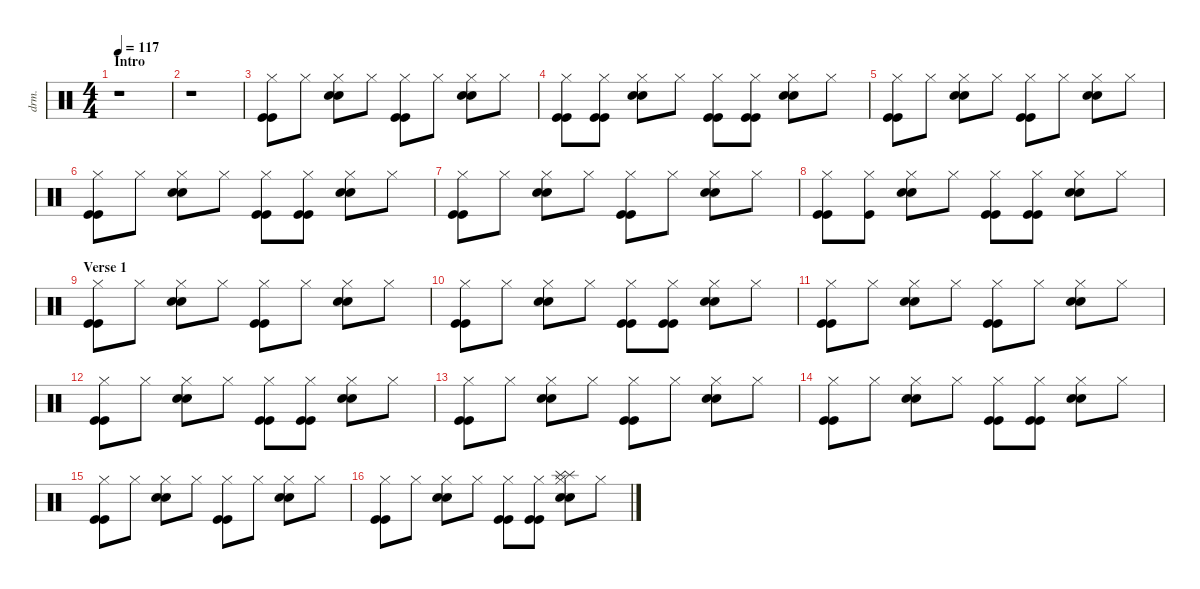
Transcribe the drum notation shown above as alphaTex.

\defaultSystemsLayout 4
\hideDynamics
\bracketExtendMode nobrackets
\otherSystemsTrackNameOrientation horizontal
\track ("Drums" "drm.") {instrument percussion}
\staff {score}
\articulation defaults
\ts (4 4)
\section ("" "Intro")
\tempo 117
\clef neutral
\ks c
r.1{dy f beam Down} |
r.1{beam Down} |
("Kick (hit)" "Kick (hit)" "Hi-Hat (closed)").8{beam Down} "Hi-Hat (closed)".8{beam Down} ("Snare (hit) 2" "Snare (hit) 2" "Hi-Hat (closed)").8{dy mf beam Down} "Hi-Hat (closed)".8{dy f beam Down} ("Kick (hit)" "Kick (hit)" "Hi-Hat (closed)").8{beam Down} "Hi-Hat (closed)".8{beam Down} ("Snare (hit) 2" "Snare (hit) 2" "Hi-Hat (closed)").8{dy mf beam Down} "Hi-Hat (closed)".8{dy f beam Down} |
("Kick (hit)" "Kick (hit)" "Hi-Hat (closed)").8{beam Down} ("Kick (hit)" "Kick (hit)" "Hi-Hat (closed)").8{beam Down} ("Snare (hit) 2" "Snare (hit) 2" "Hi-Hat (closed)").8{dy mf beam Down} "Hi-Hat (closed)".8{dy f beam Down} ("Kick (hit)" "Kick (hit)" "Hi-Hat (closed)").8{beam Down} ("Kick (hit)" "Kick (hit)" "Hi-Hat (closed)").8{beam Down} ("Snare (hit) 2" "Snare (hit) 2" "Hi-Hat (closed)").8{dy mf beam Down} "Hi-Hat (closed)".8{dy f beam Down} |
("Kick (hit)" "Kick (hit)" "Hi-Hat (closed)").8{beam Down} "Hi-Hat (closed)".8{beam Down} ("Snare (hit) 2" "Snare (hit) 2" "Hi-Hat (closed)").8{dy mf beam Down} "Hi-Hat (closed)".8{dy f beam Down} ("Kick (hit)" "Kick (hit)" "Hi-Hat (closed)").8{beam Down} "Hi-Hat (closed)".8{beam Down} ("Snare (hit) 2" "Snare (hit) 2" "Hi-Hat (closed)").8{dy mf beam Down} "Hi-Hat (closed)".8{dy f beam Down} |
("Kick (hit)" "Kick (hit)" "Hi-Hat (closed)").8{beam Down} "Hi-Hat (closed)".8{beam Down} ("Snare (hit) 2" "Snare (hit) 2" "Hi-Hat (closed)").8{dy mf beam Down} "Hi-Hat (closed)".8{dy f beam Down} ("Kick (hit)" "Kick (hit)" "Hi-Hat (closed)").8{beam Down} ("Kick (hit)" "Kick (hit)" "Hi-Hat (closed)").8{beam Down} ("Snare (hit) 2" "Snare (hit) 2" "Hi-Hat (closed)").8{dy mf beam Down} "Hi-Hat (closed)".8{dy f beam Down} |
("Kick (hit)" "Kick (hit)" "Hi-Hat (closed)").8{beam Down} "Hi-Hat (closed)".8{beam Down} ("Snare (hit) 2" "Snare (hit) 2" "Hi-Hat (closed)").8{dy mf beam Down} "Hi-Hat (closed)".8{dy f beam Down} ("Kick (hit)" "Kick (hit)" "Hi-Hat (closed)").8{beam Down} "Hi-Hat (closed)".8{beam Down} ("Snare (hit) 2" "Snare (hit) 2" "Hi-Hat (closed)").8{dy mf beam Down} "Hi-Hat (closed)".8{dy f beam Down} |
("Kick (hit)" "Kick (hit)" "Hi-Hat (closed)").8{beam Down} ("Kick (hit)" "Hi-Hat (closed)").8{beam Down} ("Snare (hit) 2" "Snare (hit) 2" "Hi-Hat (closed)").8{dy mf beam Down} "Hi-Hat (closed)".8{dy f beam Down} ("Kick (hit)" "Kick (hit)" "Hi-Hat (closed)").8{beam Down} ("Kick (hit)" "Kick (hit)" "Hi-Hat (closed)").8{beam Down} ("Snare (hit) 2" "Snare (hit) 2" "Hi-Hat (closed)").8{dy mf beam Down} "Hi-Hat (closed)".8{dy f beam Down} |
\section ("" "Verse 1")
("Kick (hit)" "Kick (hit)" "Hi-Hat (closed)").8{beam Down} "Hi-Hat (closed)".8{beam Down} ("Snare (hit) 2" "Snare (hit) 2" "Hi-Hat (closed)").8{dy mf beam Down} "Hi-Hat (closed)".8{dy f beam Down} ("Kick (hit)" "Kick (hit)" "Hi-Hat (closed)").8{beam Down} "Hi-Hat (closed)".8{beam Down} ("Snare (hit) 2" "Snare (hit) 2" "Hi-Hat (closed)").8{dy mf beam Down} "Hi-Hat (closed)".8{dy f beam Down} |
("Kick (hit)" "Kick (hit)" "Hi-Hat (closed)").8{beam Down} "Hi-Hat (closed)".8{beam Down} ("Snare (hit) 2" "Snare (hit) 2" "Hi-Hat (closed)").8{dy mf beam Down} "Hi-Hat (closed)".8{dy f beam Down} ("Kick (hit)" "Kick (hit)" "Hi-Hat (closed)").8{beam Down} ("Kick (hit)" "Kick (hit)" "Hi-Hat (closed)").8{beam Down} ("Snare (hit) 2" "Snare (hit) 2" "Hi-Hat (closed)").8{dy mf beam Down} "Hi-Hat (closed)".8{dy f beam Down} |
("Kick (hit)" "Kick (hit)" "Hi-Hat (closed)").8{beam Down} "Hi-Hat (closed)".8{beam Down} ("Snare (hit) 2" "Snare (hit) 2" "Hi-Hat (closed)").8{dy mf beam Down} "Hi-Hat (closed)".8{dy f beam Down} ("Kick (hit)" "Kick (hit)" "Hi-Hat (closed)").8{beam Down} "Hi-Hat (closed)".8{beam Down} ("Snare (hit) 2" "Snare (hit) 2" "Hi-Hat (closed)").8{dy mf beam Down} "Hi-Hat (closed)".8{dy f beam Down} |
("Kick (hit)" "Kick (hit)" "Hi-Hat (closed)").8{beam Down} "Hi-Hat (closed)".8{beam Down} ("Snare (hit) 2" "Snare (hit) 2" "Hi-Hat (closed)").8{dy mf beam Down} "Hi-Hat (closed)".8{dy f beam Down} ("Kick (hit)" "Kick (hit)" "Hi-Hat (closed)").8{beam Down} ("Kick (hit)" "Kick (hit)" "Hi-Hat (closed)").8{beam Down} ("Snare (hit) 2" "Snare (hit) 2" "Hi-Hat (closed)").8{dy mf beam Down} "Hi-Hat (closed)".8{dy f beam Down} |
("Kick (hit)" "Kick (hit)" "Hi-Hat (closed)").8{beam Down} "Hi-Hat (closed)".8{beam Down} ("Snare (hit) 2" "Snare (hit) 2" "Hi-Hat (closed)").8{dy mf beam Down} "Hi-Hat (closed)".8{dy f beam Down} ("Kick (hit)" "Kick (hit)" "Hi-Hat (closed)").8{beam Down} "Hi-Hat (closed)".8{beam Down} ("Snare (hit) 2" "Snare (hit) 2" "Hi-Hat (closed)").8{dy mf beam Down} "Hi-Hat (closed)".8{dy f beam Down} |
("Kick (hit)" "Kick (hit)" "Hi-Hat (closed)").8{beam Down} "Hi-Hat (closed)".8{beam Down} ("Snare (hit) 2" "Snare (hit) 2" "Hi-Hat (closed)").8{dy mf beam Down} "Hi-Hat (closed)".8{dy f beam Down} ("Kick (hit)" "Kick (hit)" "Hi-Hat (closed)").8{beam Down} ("Kick (hit)" "Kick (hit)" "Hi-Hat (closed)").8{beam Down} ("Snare (hit) 2" "Snare (hit) 2" "Hi-Hat (closed)").8{dy mf beam Down} "Hi-Hat (closed)".8{dy f beam Down} |
("Kick (hit)" "Kick (hit)" "Hi-Hat (closed)").8{beam Down} "Hi-Hat (closed)".8{beam Down} ("Snare (hit) 2" "Snare (hit) 2" "Hi-Hat (closed)").8{dy mf beam Down} "Hi-Hat (closed)".8{dy f beam Down} ("Kick (hit)" "Kick (hit)" "Hi-Hat (closed)").8{beam Down} "Hi-Hat (closed)".8{beam Down} ("Snare (hit) 2" "Snare (hit) 2" "Hi-Hat (closed)").8{dy mf beam Down} "Hi-Hat (closed)".8{dy f beam Down} |
("Kick (hit)" "Kick (hit)" "Hi-Hat (closed)").8{beam Down} "Hi-Hat (closed)".8{beam Down} ("Snare (hit) 2" "Snare (hit) 2" "Hi-Hat (closed)").8{dy mf beam Down} "Hi-Hat (closed)".8{dy f beam Down} ("Kick (hit)" "Kick (hit)" "Hi-Hat (closed)").8{beam Down} ("Kick (hit)" "Kick (hit)" "Hi-Hat (closed)").8{beam Down} ("Snare (hit) 2" "Snare (hit) 2" "Hi-Hat (closed)" "Splash (hit)" "Splash (hit)").8{dy ff beam Down} "Hi-Hat (closed)".8{dy f beam Down}
